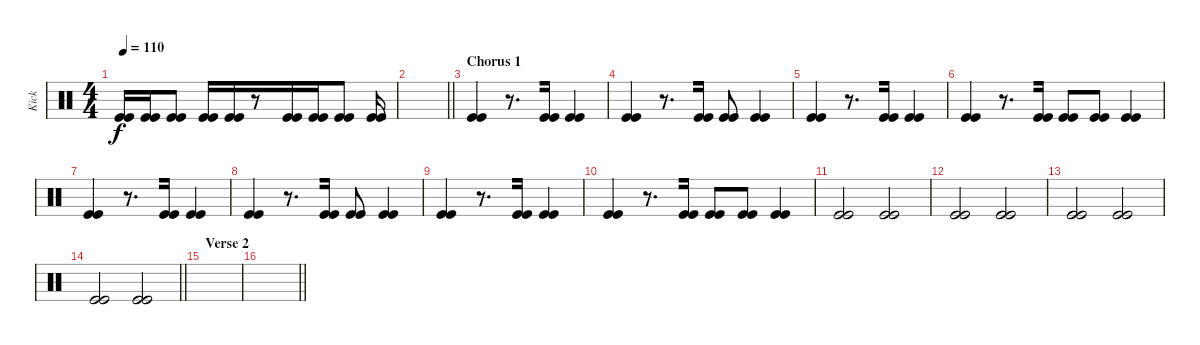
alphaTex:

\track ("Kick" "Kick") {instrument percussion}
\staff {score}
\articulation defaults
\ts (4 4)
\tempo 110
\clef neutral
\ks c
("Kick (hit)" "Kick (hit)").16{dy f} ("Kick (hit)" "Kick (hit)").16 ("Kick (hit)" "Kick (hit)").8 ("Kick (hit)" "Kick (hit)").16 ("Kick (hit)" "Kick (hit)").16{beam merge} r.8 ("Kick (hit)" "Kick (hit)").16 ("Kick (hit)" "Kick (hit)").16 ("Kick (hit)" "Kick (hit)").8 ("Kick (hit)" "Kick (hit)").16 |
\barLineRight lightlight
|
\section ("" "Chorus 1")
("Kick (hit)" "Kick (hit)").4{beam merge} r.8{d} ("Kick (hit)" "Kick (hit)").16 ("Kick (hit)" "Kick (hit)").4 |
("Kick (hit)" "Kick (hit)").4{beam merge} r.8{d} ("Kick (hit)" "Kick (hit)").16 ("Kick (hit)" "Kick (hit)").8 ("Kick (hit)" "Kick (hit)").4 |
("Kick (hit)" "Kick (hit)").4{beam merge} r.8{d} ("Kick (hit)" "Kick (hit)").16 ("Kick (hit)" "Kick (hit)").4 |
("Kick (hit)" "Kick (hit)").4{beam merge} r.8{d} ("Kick (hit)" "Kick (hit)").16 ("Kick (hit)" "Kick (hit)").8 ("Kick (hit)" "Kick (hit)").8{beam merge} ("Kick (hit)" "Kick (hit)").4 |
("Kick (hit)" "Kick (hit)").4{beam merge} r.8{d} ("Kick (hit)" "Kick (hit)").16 ("Kick (hit)" "Kick (hit)").4 |
("Kick (hit)" "Kick (hit)").4{beam merge} r.8{d} ("Kick (hit)" "Kick (hit)").16 ("Kick (hit)" "Kick (hit)").8 ("Kick (hit)" "Kick (hit)").4 |
("Kick (hit)" "Kick (hit)").4{beam merge} r.8{d} ("Kick (hit)" "Kick (hit)").16 ("Kick (hit)" "Kick (hit)").4 |
("Kick (hit)" "Kick (hit)").4{beam merge} r.8{d} ("Kick (hit)" "Kick (hit)").16 ("Kick (hit)" "Kick (hit)").8 ("Kick (hit)" "Kick (hit)").8{beam merge} ("Kick (hit)" "Kick (hit)").4 |
("Kick (hit)" "Kick (hit)").2{beam merge} ("Kick (hit)" "Kick (hit)").2 |
("Kick (hit)" "Kick (hit)").2{beam merge} ("Kick (hit)" "Kick (hit)").2 |
("Kick (hit)" "Kick (hit)").2{beam merge} ("Kick (hit)" "Kick (hit)").2 |
\barLineRight lightlight
("Kick (hit)" "Kick (hit)").2{beam merge} ("Kick (hit)" "Kick (hit)").2 |
\section ("" "Verse 2")
|
\barLineRight lightlight
